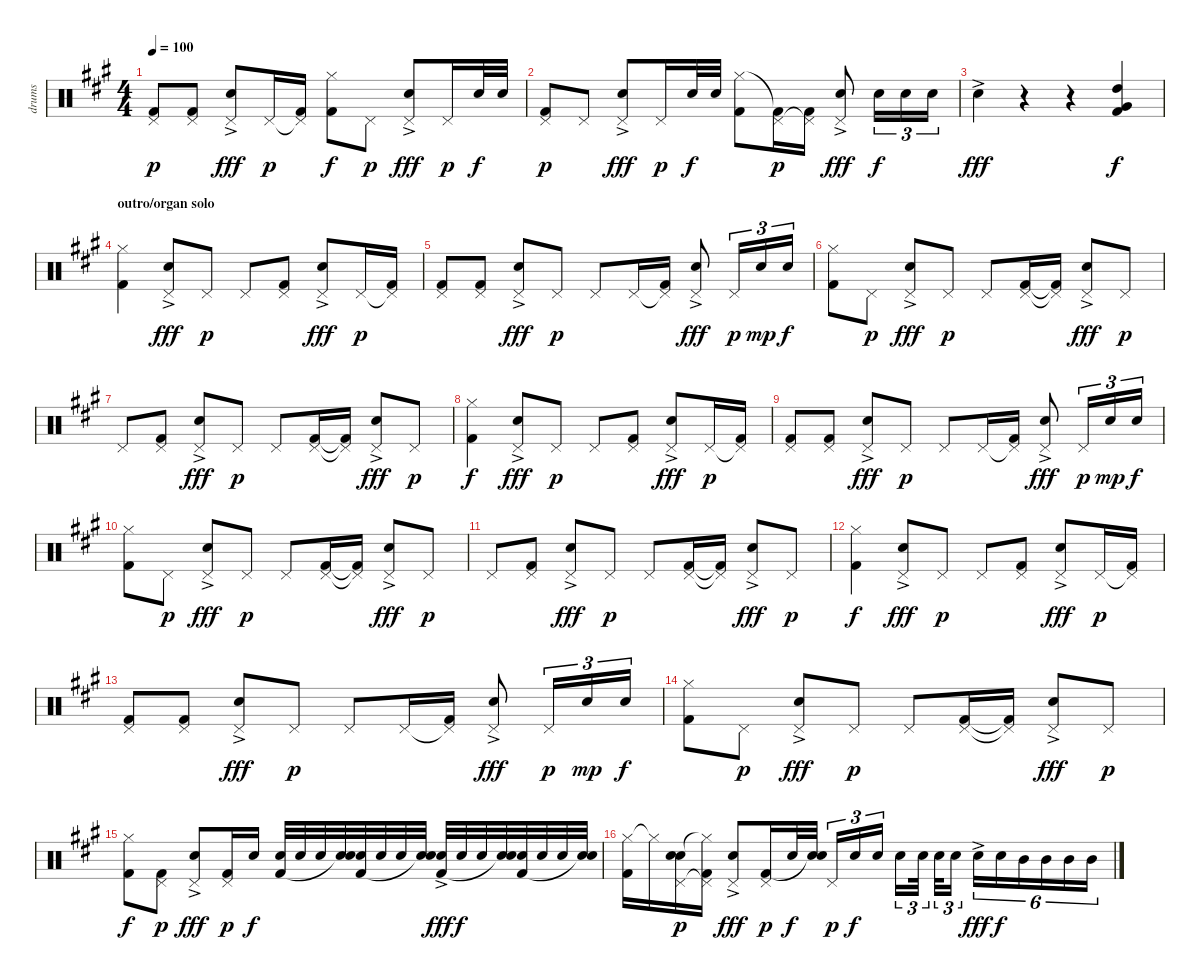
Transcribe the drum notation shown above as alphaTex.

\track ("drums" "drums") {instrument percussion}
\staff {score}
\articulation defaults
\ts (4 4)
\tempo 100
\clef neutral
\ks a
("Pedal Hi-Hat (hit)" "Kick (hit) 2").8{dy p} ("Pedal Hi-Hat (hit)" "Kick (hit) 2").8 ("Pedal Hi-Hat (hit)" "Snare (hit) 2"{ac}).8{dy fff} "Pedal Hi-Hat (hit)".16{dy p} ("Pedal Hi-Hat (hit)"{t} "Kick (hit) 2").16 ("Kick (hit) 2" "Hi-Hat (closed)").8{dy f} "Pedal Hi-Hat (hit)".8{dy p} ("Pedal Hi-Hat (hit)" "Snare (hit) 2"{ac}).8{dy fff} "Pedal Hi-Hat (hit)".16{dy p} "Snare (hit) 2".32{dy f} "Snare (hit) 2".32 |
("Pedal Hi-Hat (hit)" "Kick (hit) 2").8{dy p} "Pedal Hi-Hat (hit)".8 ("Pedal Hi-Hat (hit)" "Snare (hit) 2"{ac}).8{dy fff} "Pedal Hi-Hat (hit)".16{dy p} "Snare (hit) 2".32{dy f} "Snare (hit) 2".32 ("Kick (hit) 2" "Hi-Hat (closed)").8 ("Pedal Hi-Hat (hit)" "Kick (hit) 2"{t}).16{dy p} ("Pedal Hi-Hat (hit)"{t} "Kick (hit) 2").16 ("Pedal Hi-Hat (hit)" "Snare (hit) 2"{ac}).8{dy fff} "Snare (hit) 2".16{tu (3 2) dy f} "Snare (hit) 2".16{tu (3 2)} "Snare (hit) 2".16{tu (3 2)} |
"Snare (hit) 2"{ac}.4{dy fff} r.4 r.4 ("High Tom (hit)" "Very Low Tom (hit)" "Kick (hit) 2").4{dy f} |
\section ("" "outro/organ solo")
("Hi-Hat (closed)" "Kick (hit) 2").4 ("Pedal Hi-Hat (hit)" "Snare (hit) 2"{ac}).8{dy fff} "Pedal Hi-Hat (hit)".8{dy p} "Pedal Hi-Hat (hit)".8 ("Pedal Hi-Hat (hit)" "Kick (hit) 2").8 ("Pedal Hi-Hat (hit)" "Snare (hit) 2"{ac}).8{dy fff} "Pedal Hi-Hat (hit)".16{dy p} ("Pedal Hi-Hat (hit)"{t} "Kick (hit) 2").16 |
("Pedal Hi-Hat (hit)" "Kick (hit) 2").8 ("Pedal Hi-Hat (hit)" "Kick (hit) 2").8 ("Pedal Hi-Hat (hit)" "Snare (hit) 2"{ac}).8{dy fff} "Pedal Hi-Hat (hit)".8{dy p} "Pedal Hi-Hat (hit)".8 "Pedal Hi-Hat (hit)".16 ("Pedal Hi-Hat (hit)"{t} "Kick (hit) 2").16 ("Pedal Hi-Hat (hit)" "Snare (hit) 2"{ac}).8{dy fff} "Pedal Hi-Hat (hit)".16{tu (3 2) dy p} "Snare (hit) 2".16{tu (3 2) dy mp} "Snare (hit) 2".16{tu (3 2) dy f} |
("Hi-Hat (closed)" "Kick (hit) 2").8 "Pedal Hi-Hat (hit)".8{dy p} ("Pedal Hi-Hat (hit)" "Snare (hit) 2"{ac}).8{dy fff} "Pedal Hi-Hat (hit)".8{dy p} "Pedal Hi-Hat (hit)".8 ("Pedal Hi-Hat (hit)" "Kick (hit) 2").16 ("Pedal Hi-Hat (hit)"{t} "Kick (hit) 2"{t}).16 ("Pedal Hi-Hat (hit)" "Snare (hit) 2"{ac}).8{dy fff} "Pedal Hi-Hat (hit)".8{dy p} |
"Pedal Hi-Hat (hit)".8 ("Pedal Hi-Hat (hit)" "Kick (hit) 2").8 ("Pedal Hi-Hat (hit)" "Snare (hit) 2"{ac}).8{dy fff} "Pedal Hi-Hat (hit)".8{dy p} "Pedal Hi-Hat (hit)".8 ("Pedal Hi-Hat (hit)" "Kick (hit) 2").16 ("Pedal Hi-Hat (hit)"{t} "Kick (hit) 2"{t}).16 ("Pedal Hi-Hat (hit)" "Snare (hit) 2"{ac}).8{dy fff} "Pedal Hi-Hat (hit)".8{dy p} |
("Hi-Hat (closed)" "Kick (hit) 2").4{dy f} ("Pedal Hi-Hat (hit)" "Snare (hit) 2"{ac}).8{dy fff} "Pedal Hi-Hat (hit)".8{dy p} "Pedal Hi-Hat (hit)".8 ("Pedal Hi-Hat (hit)" "Kick (hit) 2").8 ("Pedal Hi-Hat (hit)" "Snare (hit) 2"{ac}).8{dy fff} "Pedal Hi-Hat (hit)".16{dy p} ("Pedal Hi-Hat (hit)"{t} "Kick (hit) 2").16 |
("Pedal Hi-Hat (hit)" "Kick (hit) 2").8 ("Pedal Hi-Hat (hit)" "Kick (hit) 2").8 ("Pedal Hi-Hat (hit)" "Snare (hit) 2"{ac}).8{dy fff} "Pedal Hi-Hat (hit)".8{dy p} "Pedal Hi-Hat (hit)".8 "Pedal Hi-Hat (hit)".16 ("Pedal Hi-Hat (hit)"{t} "Kick (hit) 2").16 ("Pedal Hi-Hat (hit)" "Snare (hit) 2"{ac}).8{dy fff} "Pedal Hi-Hat (hit)".16{tu (3 2) dy p} "Snare (hit) 2".16{tu (3 2) dy mp} "Snare (hit) 2".16{tu (3 2) dy f} |
("Hi-Hat (closed)" "Kick (hit) 2").8 "Pedal Hi-Hat (hit)".8{dy p} ("Pedal Hi-Hat (hit)" "Snare (hit) 2"{ac}).8{dy fff} "Pedal Hi-Hat (hit)".8{dy p} "Pedal Hi-Hat (hit)".8 ("Pedal Hi-Hat (hit)" "Kick (hit) 2").16 ("Pedal Hi-Hat (hit)"{t} "Kick (hit) 2"{t}).16 ("Pedal Hi-Hat (hit)" "Snare (hit) 2"{ac}).8{dy fff} "Pedal Hi-Hat (hit)".8{dy p} |
"Pedal Hi-Hat (hit)".8 ("Pedal Hi-Hat (hit)" "Kick (hit) 2").8 ("Pedal Hi-Hat (hit)" "Snare (hit) 2"{ac}).8{dy fff} "Pedal Hi-Hat (hit)".8{dy p} "Pedal Hi-Hat (hit)".8 ("Pedal Hi-Hat (hit)" "Kick (hit) 2").16 ("Pedal Hi-Hat (hit)"{t} "Kick (hit) 2"{t}).16 ("Pedal Hi-Hat (hit)" "Snare (hit) 2"{ac}).8{dy fff} "Pedal Hi-Hat (hit)".8{dy p} |
("Hi-Hat (closed)" "Kick (hit) 2").4{dy f} ("Pedal Hi-Hat (hit)" "Snare (hit) 2"{ac}).8{dy fff} "Pedal Hi-Hat (hit)".8{dy p} "Pedal Hi-Hat (hit)".8 ("Pedal Hi-Hat (hit)" "Kick (hit) 2").8 ("Pedal Hi-Hat (hit)" "Snare (hit) 2"{ac}).8{dy fff} "Pedal Hi-Hat (hit)".16{dy p} ("Pedal Hi-Hat (hit)"{t} "Kick (hit) 2").16 |
("Pedal Hi-Hat (hit)" "Kick (hit) 2").8 ("Pedal Hi-Hat (hit)" "Kick (hit) 2").8 ("Pedal Hi-Hat (hit)" "Snare (hit) 2"{ac}).8{dy fff} "Pedal Hi-Hat (hit)".8{dy p} "Pedal Hi-Hat (hit)".8 "Pedal Hi-Hat (hit)".16 ("Pedal Hi-Hat (hit)"{t} "Kick (hit) 2").16 ("Pedal Hi-Hat (hit)" "Snare (hit) 2"{ac}).8{dy fff} "Pedal Hi-Hat (hit)".16{tu (3 2) dy p} "Snare (hit) 2".16{tu (3 2) dy mp} "Snare (hit) 2".16{tu (3 2) dy f} |
("Hi-Hat (closed)" "Kick (hit) 2").8 "Pedal Hi-Hat (hit)".8{dy p} ("Pedal Hi-Hat (hit)" "Snare (hit) 2"{ac}).8{dy fff} "Pedal Hi-Hat (hit)".8{dy p} "Pedal Hi-Hat (hit)".8 ("Pedal Hi-Hat (hit)" "Kick (hit) 2").16 ("Pedal Hi-Hat (hit)"{t} "Kick (hit) 2"{t}).16 ("Pedal Hi-Hat (hit)" "Snare (hit) 2"{ac}).8{dy fff} "Pedal Hi-Hat (hit)".8{dy p} |
("Hi-Hat (closed)" "Kick (hit) 2").8{dy f} ("Pedal Hi-Hat (hit)" "Kick (hit) 2").8{dy p} ("Pedal Hi-Hat (hit)" "Snare (hit) 2"{ac}).8{dy fff} ("Pedal Hi-Hat (hit)" "Kick (hit) 2").16{dy p} "Snare (hit) 2".16{dy f} ("Snare (hit) 2" "Kick (hit) 2").32 "Snare (hit) 2".32 "Snare (hit) 2".32 ("Snare (hit) 2" "Snare (hit)"{t}).32 ("Snare (hit) 2" "Kick (hit) 2").32 "Snare (hit) 2".32 "Snare (hit) 2".32 ("Snare (hit) 2" "Snare (hit)"{t}).32 ("Snare (hit) 2"{ac} "Kick (hit) 2").32{dy fff} "Snare (hit) 2".32{dy f} "Snare (hit) 2".32 ("Snare (hit) 2" "Snare (hit)"{t}).32 ("Snare (hit) 2" "Kick (hit) 2").32 "Snare (hit) 2".32 "Snare (hit) 2".32 ("Snare (hit) 2" "Snare (hit)"{t}).32 |
("Hi-Hat (closed)" "Kick (hit) 2").16 "Hi-Hat (closed)"{t}.16 ("Pedal Hi-Hat (hit)" "Snare (hit) 2" "Snare (hit)").16{dy p} ("Pedal Hi-Hat (hit)"{t} "Hi-Hat (closed)"{t} "Kick (hit) 2").16 ("Pedal Hi-Hat (hit)" "Snare (hit) 2"{ac}).8{dy fff} ("Pedal Hi-Hat (hit)" "Kick (hit) 2").16{dy p} "Snare (hit) 2".32{dy f} ("Snare (hit) 2" "Snare (hit)"{t}).32 "Pedal Hi-Hat (hit)".16{tu (3 2) dy p} "Snare (hit) 2".16{tu (3 2) dy f} "Snare (hit) 2".16{tu (3 2)} "Snare (hit) 2".16{tu (3 2)} "Snare (hit) 2".32{tu (3 2)} "Snare (hit) 2".32{tu (3 2)} "Snare (hit) 2".16{tu (3 2)} "Snare (hit) 2"{ac}.16{tu (6 4) dy fff} "Snare (hit) 2".16{tu (6 4) dy f} "Mid Tom (hit)".16{tu (6 4)} "Mid Tom (hit)".16{tu (6 4)} "Mid Tom (hit)".16{tu (6 4)} "Mid Tom (hit)".16{tu (6 4)}
